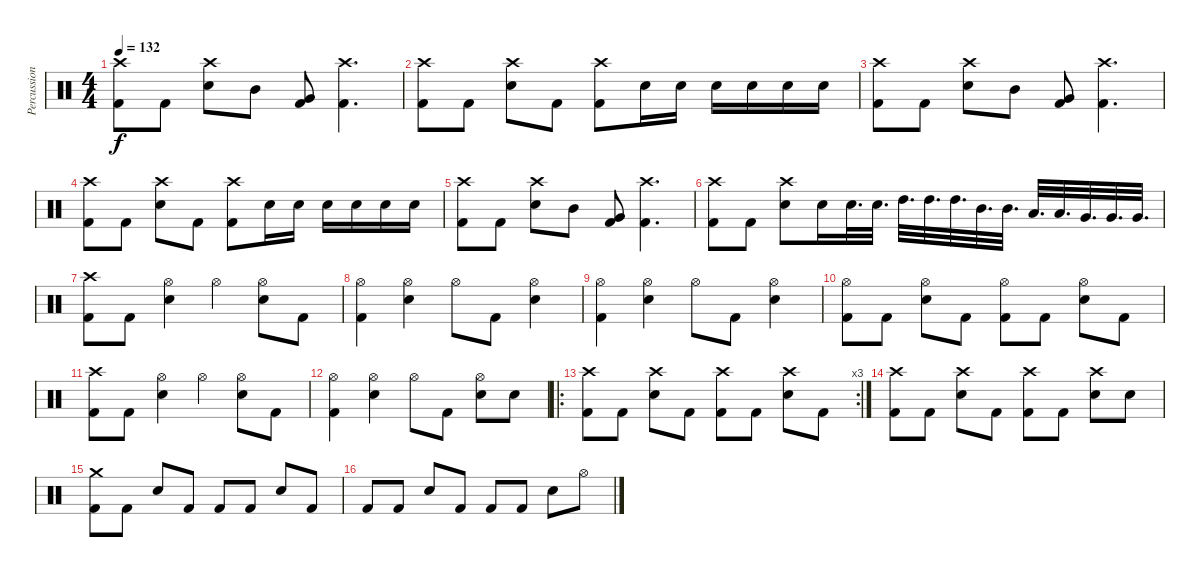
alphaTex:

\track ("Percussion" "Percussion") {instrument percussion}
\staff {score}
\articulation defaults
\ts (4 4)
\tempo 132
\clef neutral
\ks c
("Crash high (hit)" "Kick (hit) 2").8{dy f} "Kick (hit) 2".8 ("Crash high (hit)" "Electric Snare (hit)").8 "Mid Tom (hit)".8 ("Very Low Tom (hit)" "Kick (hit) 2").8 ("Crash high (hit)" "Kick (hit) 2").4{d} |
("Crash high (hit)" "Kick (hit) 2").8 "Kick (hit) 2".8 ("Crash high (hit)" "Electric Snare (hit)").8 "Kick (hit) 2".8 ("Crash high (hit)" "Kick (hit) 2").8 "Electric Snare (hit)".16 "Electric Snare (hit)".16 "Electric Snare (hit)".16 "Electric Snare (hit)".16 "Electric Snare (hit)".16 "Electric Snare (hit)".16 |
("Crash high (hit)" "Kick (hit) 2").8 "Kick (hit) 2".8 ("Crash high (hit)" "Electric Snare (hit)").8 "Mid Tom (hit)".8 ("Very Low Tom (hit)" "Kick (hit) 2").8 ("Crash high (hit)" "Kick (hit) 2").4{d} |
("Crash high (hit)" "Kick (hit) 2").8 "Kick (hit) 2".8 ("Crash high (hit)" "Electric Snare (hit)").8 "Kick (hit) 2".8 ("Crash high (hit)" "Kick (hit) 2").8 "Electric Snare (hit)".16 "Electric Snare (hit)".16 "Electric Snare (hit)".16 "Electric Snare (hit)".16 "Electric Snare (hit)".16 "Electric Snare (hit)".16 |
("Crash high (hit)" "Kick (hit) 2").8 "Kick (hit) 2".8 ("Crash high (hit)" "Electric Snare (hit)").8 "Mid Tom (hit)".8 ("Very Low Tom (hit)" "Kick (hit) 2").8 ("Crash high (hit)" "Kick (hit) 2").4{d} |
("Crash high (hit)" "Kick (hit) 2").8 "Kick (hit) 2".8 ("Crash high (hit)" "Electric Snare (hit)").8 "Electric Snare (hit)".16 "Electric Snare (hit)".32{d} "Electric Snare (hit)".32{d} "High Tom (hit)".32{d} "High Tom (hit)".32{d} "High Tom (hit)".32{d} "Mid Tom (hit)".32{d} "Mid Tom (hit)".32{d} "Low Tom (hit)".32{d} "Low Tom (hit)".32{d} "Very Low Tom (hit)".32{d} "Very Low Tom (hit)".32{d} "Very Low Tom (hit)".32{d} |
("Crash high (hit)" "Kick (hit) 2").8 "Kick (hit) 2".8 ("Hi-Hat (open)" "Electric Snare (hit)").4 "Hi-Hat (open)".4 ("Hi-Hat (open)" "Electric Snare (hit)").8 "Kick (hit) 2".8 |
("Hi-Hat (open)" "Kick (hit) 2").4 ("Hi-Hat (open)" "Electric Snare (hit)").4 "Hi-Hat (open)".8 "Kick (hit) 2".8 ("Hi-Hat (open)" "Electric Snare (hit)").4 |
("Hi-Hat (open)" "Kick (hit) 2").4 ("Hi-Hat (open)" "Electric Snare (hit)").4 "Hi-Hat (open)".8 "Kick (hit) 2".8 ("Hi-Hat (open)" "Electric Snare (hit)").4 |
("Hi-Hat (open)" "Kick (hit) 2").8 "Kick (hit) 2".8 ("Hi-Hat (open)" "Electric Snare (hit)").8 "Kick (hit) 2".8 ("Hi-Hat (open)" "Kick (hit) 2").8 "Kick (hit) 2".8 ("Hi-Hat (open)" "Electric Snare (hit)").8 "Kick (hit) 2".8 |
("Crash high (hit)" "Kick (hit) 2").8 "Kick (hit) 2".8 ("Hi-Hat (open)" "Electric Snare (hit)").4 "Hi-Hat (open)".4 ("Hi-Hat (open)" "Electric Snare (hit)").8 "Kick (hit) 2".8 |
("Hi-Hat (open)" "Kick (hit) 2").4 ("Hi-Hat (open)" "Electric Snare (hit)").4 "Hi-Hat (open)".8 "Kick (hit) 2".8 ("Hi-Hat (open)" "Electric Snare (hit)").8 "Electric Snare (hit)".8 |
\ro
\rc 3
("Crash high (hit)" "Kick (hit) 2").8 "Kick (hit) 2".8 ("Crash high (hit)" "Electric Snare (hit)").8 "Kick (hit) 2".8 ("Crash high (hit)" "Kick (hit) 2").8 "Kick (hit) 2".8 ("Crash high (hit)" "Electric Snare (hit)").8 "Kick (hit) 2".8 |
("Crash high (hit)" "Kick (hit) 2").8 "Kick (hit) 2".8 ("Crash high (hit)" "Electric Snare (hit)").8 "Kick (hit) 2".8 ("Crash high (hit)" "Kick (hit) 2").8 "Kick (hit) 2".8 ("Crash high (hit)" "Electric Snare (hit)").8 "Electric Snare (hit)".8 |
("Crash medium (hit)" "Kick (hit) 2").8 "Kick (hit) 2".8 "Electric Snare (hit)".8 "Kick (hit) 2".8 "Kick (hit) 2".8 "Kick (hit) 2".8 "Electric Snare (hit)".8 "Kick (hit) 2".8 |
"Kick (hit) 2".8 "Kick (hit) 2".8 "Electric Snare (hit)".8 "Kick (hit) 2".8 "Kick (hit) 2".8 "Kick (hit) 2".8 "Electric Snare (hit)".8 "Hi-Hat (open)".8
